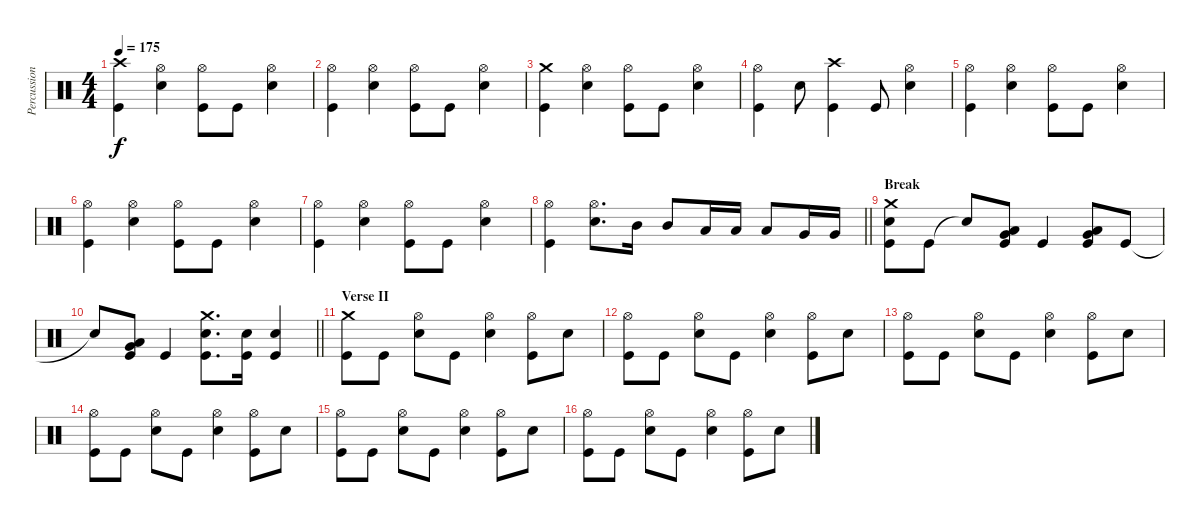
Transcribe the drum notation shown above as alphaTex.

\track ("Percussion" "Percussion") {instrument percussion}
\staff {score}
\articulation defaults
\ts (4 4)
\tempo 175
\clef neutral
\ks c
("Crash high (hit)" "Kick (hit)").4{dy f} ("Hi-Hat (open)" "Electric Snare (hit)").4 ("Hi-Hat (open)" "Kick (hit)").8 "Kick (hit)".8 ("Hi-Hat (open)" "Electric Snare (hit)").4 |
("Hi-Hat (open)" "Kick (hit)").4 ("Hi-Hat (open)" "Electric Snare (hit)").4 ("Hi-Hat (open)" "Kick (hit)").8 "Kick (hit)".8 ("Hi-Hat (open)" "Electric Snare (hit)").4 |
("Crash medium (hit)" "Kick (hit)").4 ("Hi-Hat (open)" "Electric Snare (hit)").4 ("Hi-Hat (open)" "Kick (hit)").8 "Kick (hit)".8 ("Hi-Hat (open)" "Electric Snare (hit)").4 |
("Hi-Hat (open)" "Kick (hit)").4 "Electric Snare (hit)".8 ("Crash high (hit)" "Kick (hit)").4 "Kick (hit)".8 ("Hi-Hat (open)" "Electric Snare (hit)").4 |
("Hi-Hat (open)" "Kick (hit)").4 ("Hi-Hat (open)" "Electric Snare (hit)").4 ("Hi-Hat (open)" "Kick (hit)").8 "Kick (hit)".8 ("Hi-Hat (open)" "Electric Snare (hit)").4 |
("Hi-Hat (open)" "Kick (hit)").4 ("Hi-Hat (open)" "Electric Snare (hit)").4 ("Hi-Hat (open)" "Kick (hit)").8 "Kick (hit)".8 ("Hi-Hat (open)" "Electric Snare (hit)").4 |
("Hi-Hat (open)" "Kick (hit)").4 ("Hi-Hat (open)" "Electric Snare (hit)").4 ("Hi-Hat (open)" "Kick (hit)").8 "Kick (hit)".8 ("Hi-Hat (open)" "Electric Snare (hit)").4 |
\barLineRight lightlight
("Hi-Hat (open)" "Kick (hit)").4 ("Hi-Hat (open)" "Electric Snare (hit)").8{d} "Mid Tom (hit)".16 "Mid Tom (hit)".8 "Low Tom (hit)".16 "Low Tom (hit)".16 "Low Tom (hit)".8 "Very Low Tom (hit)".16 "Very Low Tom (hit)".16 |
\section ("" "Break")
("Crash medium (hit)" "Electric Snare (hit)" "Kick (hit)").8 "Kick (hit)".8 "Snare (hit)"{t}.8 ("Very Low Tom (hit)" "Low Floor Tom (hit)" "Kick (hit)").8 "Kick (hit)".4 ("Very Low Tom (hit)" "Low Floor Tom (hit)" "Kick (hit)").8 "Kick (hit)".8 |
\barLineRight lightlight "Snare (hit)"{t}.8
("Very Low Tom (hit)" "Low Floor Tom (hit)" "Kick (hit)").8 "Kick (hit)".4 ("Crash medium (hit)" "Electric Snare (hit)" "Kick (hit)").8{d} ("Electric Snare (hit)" "Kick (hit)").16 ("Electric Snare (hit)" "Kick (hit)").4 |
\section ("" "Verse II")
("Crash medium (hit)" "Kick (hit)").8 "Kick (hit)".8 ("Hi-Hat (open)" "Electric Snare (hit)").8 "Kick (hit)".8 ("Hi-Hat (open)" "Electric Snare (hit)").4 ("Hi-Hat (open)" "Kick (hit)").8 "Electric Snare (hit)".8 |
("Hi-Hat (open)" "Kick (hit)").8 "Kick (hit)".8 ("Hi-Hat (open)" "Electric Snare (hit)").8 "Kick (hit)".8 ("Hi-Hat (open)" "Electric Snare (hit)").4 ("Hi-Hat (open)" "Kick (hit)").8 "Electric Snare (hit)".8 |
("Hi-Hat (open)" "Kick (hit)").8 "Kick (hit)".8 ("Hi-Hat (open)" "Electric Snare (hit)").8 "Kick (hit)".8 ("Hi-Hat (open)" "Electric Snare (hit)").4 ("Hi-Hat (open)" "Kick (hit)").8 "Electric Snare (hit)".8 |
("Hi-Hat (open)" "Kick (hit)").8 "Kick (hit)".8 ("Hi-Hat (open)" "Electric Snare (hit)").8 "Kick (hit)".8 ("Hi-Hat (open)" "Electric Snare (hit)").4 ("Hi-Hat (open)" "Kick (hit)").8 "Electric Snare (hit)".8 |
("Hi-Hat (open)" "Kick (hit)").8 "Kick (hit)".8 ("Hi-Hat (open)" "Electric Snare (hit)").8 "Kick (hit)".8 ("Hi-Hat (open)" "Electric Snare (hit)").4 ("Hi-Hat (open)" "Kick (hit)").8 "Electric Snare (hit)".8 |
("Hi-Hat (open)" "Kick (hit)").8 "Kick (hit)".8 ("Hi-Hat (open)" "Electric Snare (hit)").8 "Kick (hit)".8 ("Hi-Hat (open)" "Electric Snare (hit)").4 ("Hi-Hat (open)" "Kick (hit)").8 "Electric Snare (hit)".8
